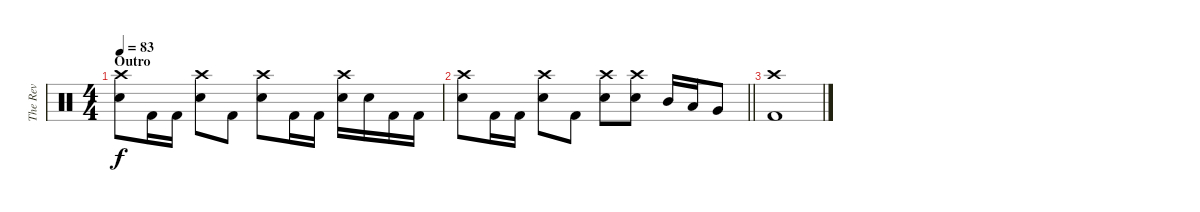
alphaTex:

\track ("The Rev" "The Rev") {instrument percussion}
\staff {score}
\articulation defaults
\ts (4 4)
\section ("" "Outro")
\tempo 83
\clef neutral
\ks c
("Crash high (hit)" "Snare (hit) 2").8{dy f} "Kick (hit) 2".16 "Kick (hit) 2".16 ("Crash high (hit)" "Snare (hit) 2").8 "Kick (hit) 2".8 ("Crash high (hit)" "Snare (hit) 2").8 "Kick (hit) 2".16 "Kick (hit) 2".16 ("Crash high (hit)" "Snare (hit) 2").16 "Snare (hit) 2".16 "Kick (hit) 2".16 "Kick (hit) 2".16 |
\barLineRight lightlight
("Crash high (hit)" "Snare (hit) 2").8 "Kick (hit) 2".16 "Kick (hit) 2".16 ("Crash high (hit)" "Snare (hit) 2").8 "Kick (hit) 2".8 ("Crash high (hit)" "Snare (hit) 2").8 ("Crash high (hit)" "Snare (hit) 2").8 "Mid Tom (hit)".16 "Low Tom (hit)".16 "Very Low Tom (hit)".8 |
("Crash high (hit)" "Kick (hit) 2").1
